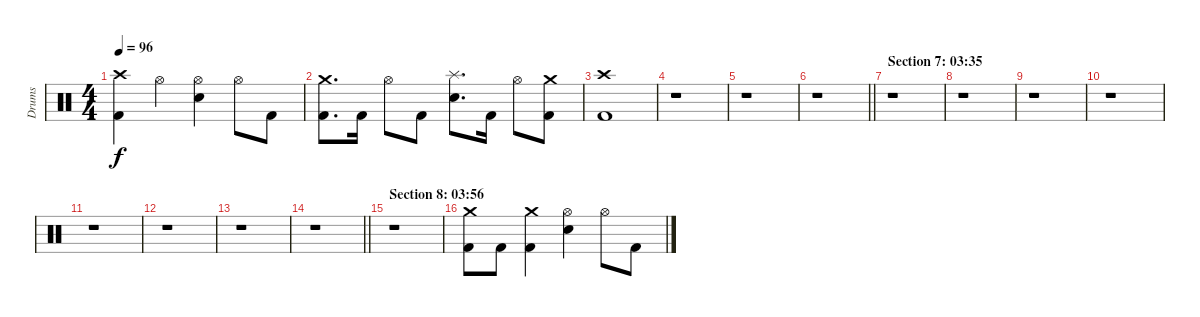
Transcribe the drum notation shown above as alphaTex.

\track ("Drums" "Drums") {instrument percussion}
\staff {score}
\articulation defaults
\ts (4 4)
\tempo 96
\clef neutral
\ks c
("Crash high (hit)" "Kick (hit) 2").4{dy f} "Hi-Hat (open)".4 ("Hi-Hat (open)" "Electric Snare (hit)").4 "Hi-Hat (open)".8 "Kick (hit) 2".8 |
("Crash medium (hit)" "Kick (hit) 2").8{d} "Kick (hit) 2".16 "Hi-Hat (open)".8 "Kick (hit) 2".8 ("Splash (hit)" "Electric Snare (hit)").8{d} "Kick (hit) 2".16 "Hi-Hat (open)".8 ("Crash medium (hit)" "Kick (hit) 2").8 |
("Crash high (hit)" "Kick (hit) 2").1 |
r.1 |
r.1 |
\barLineRight lightlight
r.1 |
\section ("" "Section 7: 03:35")
r.1 |
r.1 |
r.1 |
r.1 |
r.1 |
r.1 |
r.1 |
\barLineRight lightlight
r.1 |
\section ("" "Section 8: 03:56")
r.1 |
("Crash medium (hit)" "Kick (hit) 2").8 "Kick (hit) 2".8 ("Crash medium (hit)" "Kick (hit) 2").4 ("Hi-Hat (open)" "Electric Snare (hit)").4 "Hi-Hat (open)".8 "Kick (hit) 2".8
